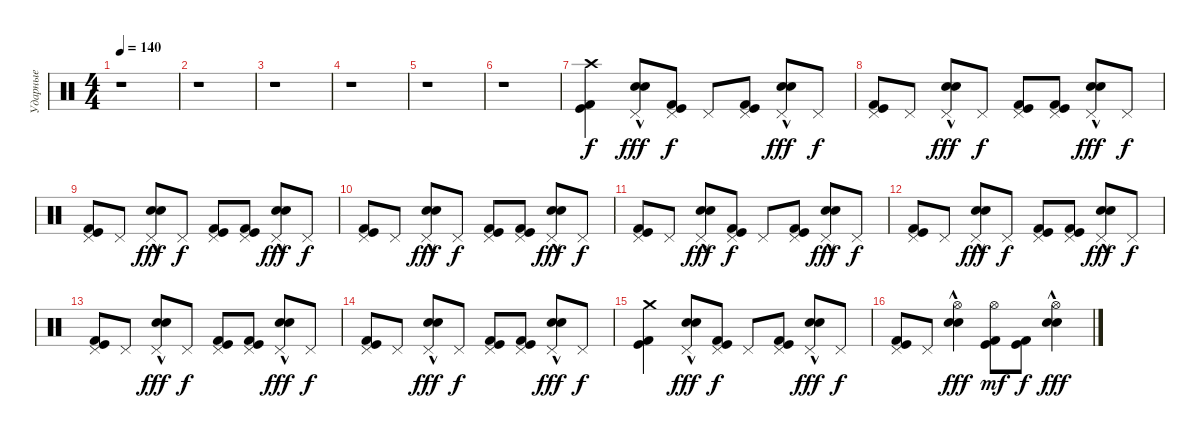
\track ("Ударные" "Ударные") {instrument percussion}
\staff {score}
\articulation defaults
\ts (4 4)
\tempo 140
\clef neutral
\ks c
r.1{dy fff} |
r.1 |
r.1 |
r.1 |
r.1 |
r.1 |
("Crash high (hit)" "Kick (hit)" "Kick (hit) 2").4{dy f} ("Pedal Hi-Hat (hit)" "Snare (hit) 2"{hac} "Electric Snare (hit)"{hac}).8{dy fff} ("Pedal Hi-Hat (hit)" "Kick (hit)" "Kick (hit) 2").8{dy f} "Pedal Hi-Hat (hit)".8 ("Pedal Hi-Hat (hit)" "Kick (hit)" "Kick (hit) 2").8 ("Pedal Hi-Hat (hit)" "Snare (hit) 2"{hac} "Electric Snare (hit)"{hac}).8{dy fff} "Pedal Hi-Hat (hit)".8{dy f} |
("Pedal Hi-Hat (hit)" "Kick (hit)" "Kick (hit) 2").8 "Pedal Hi-Hat (hit)".8 ("Pedal Hi-Hat (hit)" "Snare (hit) 2"{hac} "Electric Snare (hit)"{hac}).8{dy fff} "Pedal Hi-Hat (hit)".8{dy f} ("Pedal Hi-Hat (hit)" "Kick (hit)" "Kick (hit) 2").8 ("Pedal Hi-Hat (hit)" "Kick (hit)" "Kick (hit) 2").8 ("Pedal Hi-Hat (hit)" "Snare (hit) 2"{hac} "Electric Snare (hit)"{hac}).8{dy fff} "Pedal Hi-Hat (hit)".8{dy f} |
("Pedal Hi-Hat (hit)" "Kick (hit)" "Kick (hit) 2").8 "Pedal Hi-Hat (hit)".8 ("Pedal Hi-Hat (hit)" "Snare (hit) 2"{hac} "Electric Snare (hit)"{hac}).8{dy fff} "Pedal Hi-Hat (hit)".8{dy f} ("Pedal Hi-Hat (hit)" "Kick (hit)" "Kick (hit) 2").8 ("Pedal Hi-Hat (hit)" "Kick (hit)" "Kick (hit) 2").8 ("Pedal Hi-Hat (hit)" "Snare (hit) 2"{hac} "Electric Snare (hit)"{hac}).8{dy fff} "Pedal Hi-Hat (hit)".8{dy f} |
("Pedal Hi-Hat (hit)" "Kick (hit)" "Kick (hit) 2").8 "Pedal Hi-Hat (hit)".8 ("Pedal Hi-Hat (hit)" "Snare (hit) 2"{hac} "Electric Snare (hit)"{hac}).8{dy fff} "Pedal Hi-Hat (hit)".8{dy f} ("Pedal Hi-Hat (hit)" "Kick (hit)" "Kick (hit) 2").8 ("Pedal Hi-Hat (hit)" "Kick (hit)" "Kick (hit) 2").8 ("Pedal Hi-Hat (hit)" "Snare (hit) 2"{hac} "Electric Snare (hit)"{hac}).8{dy fff} "Pedal Hi-Hat (hit)".8{dy f} |
("Pedal Hi-Hat (hit)" "Kick (hit)" "Kick (hit) 2").8 "Pedal Hi-Hat (hit)".8 ("Pedal Hi-Hat (hit)" "Snare (hit) 2"{hac} "Electric Snare (hit)"{hac}).8{dy fff} ("Pedal Hi-Hat (hit)" "Kick (hit)" "Kick (hit) 2").8{dy f} "Pedal Hi-Hat (hit)".8 ("Pedal Hi-Hat (hit)" "Kick (hit)" "Kick (hit) 2").8 ("Pedal Hi-Hat (hit)" "Snare (hit) 2"{hac} "Electric Snare (hit)"{hac}).8{dy fff} "Pedal Hi-Hat (hit)".8{dy f} |
("Pedal Hi-Hat (hit)" "Kick (hit)" "Kick (hit) 2").8 "Pedal Hi-Hat (hit)".8 ("Pedal Hi-Hat (hit)" "Snare (hit) 2"{hac} "Electric Snare (hit)"{hac}).8{dy fff} "Pedal Hi-Hat (hit)".8{dy f} ("Pedal Hi-Hat (hit)" "Kick (hit)" "Kick (hit) 2").8 ("Pedal Hi-Hat (hit)" "Kick (hit)" "Kick (hit) 2").8 ("Pedal Hi-Hat (hit)" "Snare (hit) 2"{hac} "Electric Snare (hit)"{hac}).8{dy fff} "Pedal Hi-Hat (hit)".8{dy f} |
("Pedal Hi-Hat (hit)" "Kick (hit)" "Kick (hit) 2").8 "Pedal Hi-Hat (hit)".8 ("Pedal Hi-Hat (hit)" "Snare (hit) 2"{hac} "Electric Snare (hit)"{hac}).8{dy fff} "Pedal Hi-Hat (hit)".8{dy f} ("Pedal Hi-Hat (hit)" "Kick (hit)" "Kick (hit) 2").8 ("Pedal Hi-Hat (hit)" "Kick (hit)" "Kick (hit) 2").8 ("Pedal Hi-Hat (hit)" "Snare (hit) 2"{hac} "Electric Snare (hit)"{hac}).8{dy fff} "Pedal Hi-Hat (hit)".8{dy f} |
("Pedal Hi-Hat (hit)" "Kick (hit)" "Kick (hit) 2").8 "Pedal Hi-Hat (hit)".8 ("Pedal Hi-Hat (hit)" "Snare (hit) 2"{hac} "Electric Snare (hit)"{hac}).8{dy fff} "Pedal Hi-Hat (hit)".8{dy f} ("Pedal Hi-Hat (hit)" "Kick (hit)" "Kick (hit) 2").8 ("Pedal Hi-Hat (hit)" "Kick (hit)" "Kick (hit) 2").8 ("Pedal Hi-Hat (hit)" "Snare (hit) 2"{hac} "Electric Snare (hit)"{hac}).8{dy fff} "Pedal Hi-Hat (hit)".8{dy f} |
("Crash medium (hit)" "Kick (hit)" "Kick (hit) 2").4 ("Pedal Hi-Hat (hit)" "Snare (hit) 2"{hac} "Electric Snare (hit)"{hac}).8{dy fff} ("Pedal Hi-Hat (hit)" "Kick (hit)" "Kick (hit) 2").8{dy f} "Pedal Hi-Hat (hit)".8 ("Pedal Hi-Hat (hit)" "Kick (hit)" "Kick (hit) 2").8 ("Pedal Hi-Hat (hit)" "Snare (hit) 2"{hac} "Electric Snare (hit)"{hac}).8{dy fff} "Pedal Hi-Hat (hit)".8{dy f} |
("Pedal Hi-Hat (hit)" "Kick (hit)" "Kick (hit) 2").8 "Pedal Hi-Hat (hit)".8 ("Hi-Hat (open)" "Snare (hit) 2"{hac} "Electric Snare (hit)"{hac}).4{dy fff} ("Hi-Hat (open)" "Kick (hit)" "Kick (hit) 2").8{dy mf} ("Kick (hit)" "Kick (hit) 2").8{dy f} ("Hi-Hat (open)" "Snare (hit) 2"{hac} "Electric Snare (hit)"{hac}).4{dy fff}
